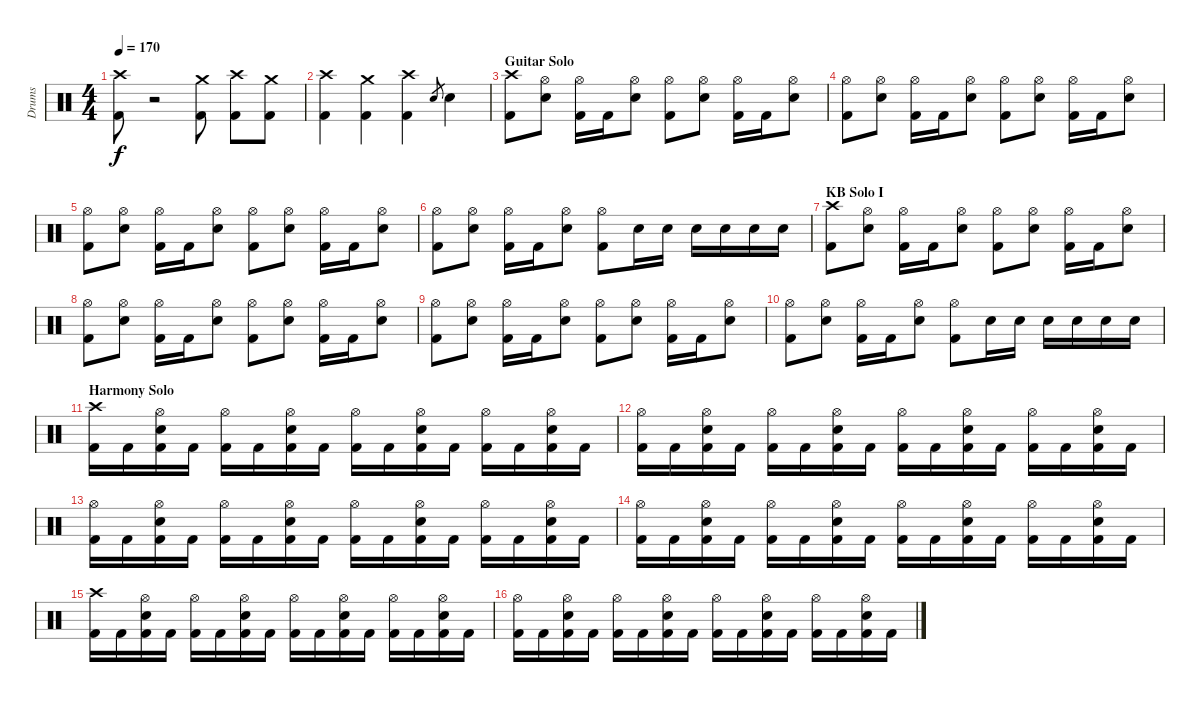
\track ("Drums" "Drums") {instrument percussion}
\staff {score}
\articulation defaults
\ts (4 4)
\tempo 170
\clef neutral
\ks c
("Crash high (hit)" "Kick (hit) 2").8{dy f} r.2 ("Crash medium (hit)" "Kick (hit) 2").8 ("Crash high (hit)" "Kick (hit) 2").8 ("Crash medium (hit)" "Kick (hit) 2").8 |
("Crash high (hit)" "Kick (hit) 2").4 ("Crash medium (hit)" "Kick (hit) 2").4 ("Crash high (hit)" "Kick (hit) 2").4 "Electric Snare (hit)".8{gr} "Electric Snare (hit)".4 |
\section ("" "Guitar Solo")
("Crash high (hit)" "Kick (hit) 2").8 ("Hi-Hat (open)" "Electric Snare (hit)").8 ("Hi-Hat (open)" "Kick (hit) 2").16 "Kick (hit) 2".16 ("Hi-Hat (open)" "Electric Snare (hit)").8 ("Hi-Hat (open)" "Kick (hit) 2").8 ("Hi-Hat (open)" "Electric Snare (hit)").8 ("Hi-Hat (open)" "Kick (hit) 2").16 "Kick (hit) 2".16 ("Hi-Hat (open)" "Electric Snare (hit)").8 |
("Hi-Hat (open)" "Kick (hit) 2").8 ("Hi-Hat (open)" "Electric Snare (hit)").8 ("Hi-Hat (open)" "Kick (hit) 2").16 "Kick (hit) 2".16 ("Hi-Hat (open)" "Electric Snare (hit)").8 ("Hi-Hat (open)" "Kick (hit) 2").8 ("Hi-Hat (open)" "Electric Snare (hit)").8 ("Hi-Hat (open)" "Kick (hit) 2").16 "Kick (hit) 2".16 ("Hi-Hat (open)" "Electric Snare (hit)").8 |
("Hi-Hat (open)" "Kick (hit) 2").8 ("Hi-Hat (open)" "Electric Snare (hit)").8 ("Hi-Hat (open)" "Kick (hit) 2").16 "Kick (hit) 2".16 ("Hi-Hat (open)" "Electric Snare (hit)").8 ("Hi-Hat (open)" "Kick (hit) 2").8 ("Hi-Hat (open)" "Electric Snare (hit)").8 ("Hi-Hat (open)" "Kick (hit) 2").16 "Kick (hit) 2".16 ("Hi-Hat (open)" "Electric Snare (hit)").8 |
("Hi-Hat (open)" "Kick (hit) 2").8 ("Hi-Hat (open)" "Electric Snare (hit)").8 ("Hi-Hat (open)" "Kick (hit) 2").16 "Kick (hit) 2".16 ("Hi-Hat (open)" "Electric Snare (hit)").8 ("Hi-Hat (open)" "Kick (hit) 2").8 "Electric Snare (hit)".16 "Electric Snare (hit)".16 "Electric Snare (hit)".16 "Electric Snare (hit)".16 "Electric Snare (hit)".16 "Electric Snare (hit)".16 |
\section ("" "KB Solo I")
("Crash high (hit)" "Kick (hit) 2").8 ("Hi-Hat (open)" "Electric Snare (hit)").8 ("Hi-Hat (open)" "Kick (hit) 2").16 "Kick (hit) 2".16 ("Hi-Hat (open)" "Electric Snare (hit)").8 ("Hi-Hat (open)" "Kick (hit) 2").8 ("Hi-Hat (open)" "Electric Snare (hit)").8 ("Hi-Hat (open)" "Kick (hit) 2").16 "Kick (hit) 2".16 ("Hi-Hat (open)" "Electric Snare (hit)").8 |
("Hi-Hat (open)" "Kick (hit) 2").8 ("Hi-Hat (open)" "Electric Snare (hit)").8 ("Hi-Hat (open)" "Kick (hit) 2").16 "Kick (hit) 2".16 ("Hi-Hat (open)" "Electric Snare (hit)").8 ("Hi-Hat (open)" "Kick (hit) 2").8 ("Hi-Hat (open)" "Electric Snare (hit)").8 ("Hi-Hat (open)" "Kick (hit) 2").16 "Kick (hit) 2".16 ("Hi-Hat (open)" "Electric Snare (hit)").8 |
("Hi-Hat (open)" "Kick (hit) 2").8 ("Hi-Hat (open)" "Electric Snare (hit)").8 ("Hi-Hat (open)" "Kick (hit) 2").16 "Kick (hit) 2".16 ("Hi-Hat (open)" "Electric Snare (hit)").8 ("Hi-Hat (open)" "Kick (hit) 2").8 ("Hi-Hat (open)" "Electric Snare (hit)").8 ("Hi-Hat (open)" "Kick (hit) 2").16 "Kick (hit) 2".16 ("Hi-Hat (open)" "Electric Snare (hit)").8 |
("Hi-Hat (open)" "Kick (hit) 2").8 ("Hi-Hat (open)" "Electric Snare (hit)").8 ("Hi-Hat (open)" "Kick (hit) 2").16 "Kick (hit) 2".16 ("Hi-Hat (open)" "Electric Snare (hit)").8 ("Hi-Hat (open)" "Kick (hit) 2").8 "Electric Snare (hit)".16 "Electric Snare (hit)".16 "Electric Snare (hit)".16 "Electric Snare (hit)".16 "Electric Snare (hit)".16 "Electric Snare (hit)".16 |
\section ("" "Harmony Solo")
("Crash high (hit)" "Kick (hit) 2").16 "Kick (hit) 2".16 ("Hi-Hat (open)" "Electric Snare (hit)" "Kick (hit) 2").16 "Kick (hit) 2".16 ("Hi-Hat (open)" "Kick (hit) 2").16 "Kick (hit) 2".16 ("Hi-Hat (open)" "Electric Snare (hit)" "Kick (hit) 2").16 "Kick (hit) 2".16 ("Hi-Hat (open)" "Kick (hit) 2").16 "Kick (hit) 2".16 ("Hi-Hat (open)" "Electric Snare (hit)" "Kick (hit) 2").16 "Kick (hit) 2".16 ("Hi-Hat (open)" "Kick (hit) 2").16 "Kick (hit) 2".16 ("Hi-Hat (open)" "Electric Snare (hit)" "Kick (hit) 2").16 "Kick (hit) 2".16 |
("Hi-Hat (open)" "Kick (hit) 2").16 "Kick (hit) 2".16 ("Hi-Hat (open)" "Electric Snare (hit)" "Kick (hit) 2").16 "Kick (hit) 2".16 ("Hi-Hat (open)" "Kick (hit) 2").16 "Kick (hit) 2".16 ("Hi-Hat (open)" "Electric Snare (hit)" "Kick (hit) 2").16 "Kick (hit) 2".16 ("Hi-Hat (open)" "Kick (hit) 2").16 "Kick (hit) 2".16 ("Hi-Hat (open)" "Electric Snare (hit)" "Kick (hit) 2").16 "Kick (hit) 2".16 ("Hi-Hat (open)" "Kick (hit) 2").16 "Kick (hit) 2".16 ("Hi-Hat (open)" "Electric Snare (hit)" "Kick (hit) 2").16 "Kick (hit) 2".16 |
("Hi-Hat (open)" "Kick (hit) 2").16 "Kick (hit) 2".16 ("Hi-Hat (open)" "Electric Snare (hit)" "Kick (hit) 2").16 "Kick (hit) 2".16 ("Hi-Hat (open)" "Kick (hit) 2").16 "Kick (hit) 2".16 ("Hi-Hat (open)" "Electric Snare (hit)" "Kick (hit) 2").16 "Kick (hit) 2".16 ("Hi-Hat (open)" "Kick (hit) 2").16 "Kick (hit) 2".16 ("Hi-Hat (open)" "Electric Snare (hit)" "Kick (hit) 2").16 "Kick (hit) 2".16 ("Hi-Hat (open)" "Kick (hit) 2").16 "Kick (hit) 2".16 ("Hi-Hat (open)" "Electric Snare (hit)" "Kick (hit) 2").16 "Kick (hit) 2".16 |
("Hi-Hat (open)" "Kick (hit) 2").16 "Kick (hit) 2".16 ("Hi-Hat (open)" "Electric Snare (hit)" "Kick (hit) 2").16 "Kick (hit) 2".16 ("Hi-Hat (open)" "Kick (hit) 2").16 "Kick (hit) 2".16 ("Hi-Hat (open)" "Electric Snare (hit)" "Kick (hit) 2").16 "Kick (hit) 2".16 ("Hi-Hat (open)" "Kick (hit) 2").16 "Kick (hit) 2".16 ("Hi-Hat (open)" "Electric Snare (hit)" "Kick (hit) 2").16 "Kick (hit) 2".16 ("Hi-Hat (open)" "Kick (hit) 2").16 "Kick (hit) 2".16 ("Hi-Hat (open)" "Electric Snare (hit)" "Kick (hit) 2").16 "Kick (hit) 2".16 |
("Crash high (hit)" "Kick (hit) 2").16 "Kick (hit) 2".16 ("Hi-Hat (open)" "Electric Snare (hit)" "Kick (hit) 2").16 "Kick (hit) 2".16 ("Hi-Hat (open)" "Kick (hit) 2").16 "Kick (hit) 2".16 ("Hi-Hat (open)" "Electric Snare (hit)" "Kick (hit) 2").16 "Kick (hit) 2".16 ("Hi-Hat (open)" "Kick (hit) 2").16 "Kick (hit) 2".16 ("Hi-Hat (open)" "Electric Snare (hit)" "Kick (hit) 2").16 "Kick (hit) 2".16 ("Hi-Hat (open)" "Kick (hit) 2").16 "Kick (hit) 2".16 ("Hi-Hat (open)" "Electric Snare (hit)" "Kick (hit) 2").16 "Kick (hit) 2".16 |
("Hi-Hat (open)" "Kick (hit) 2").16 "Kick (hit) 2".16 ("Hi-Hat (open)" "Electric Snare (hit)" "Kick (hit) 2").16 "Kick (hit) 2".16 ("Hi-Hat (open)" "Kick (hit) 2").16 "Kick (hit) 2".16 ("Hi-Hat (open)" "Electric Snare (hit)" "Kick (hit) 2").16 "Kick (hit) 2".16 ("Hi-Hat (open)" "Kick (hit) 2").16 "Kick (hit) 2".16 ("Hi-Hat (open)" "Electric Snare (hit)" "Kick (hit) 2").16 "Kick (hit) 2".16 ("Hi-Hat (open)" "Kick (hit) 2").16 "Kick (hit) 2".16 ("Hi-Hat (open)" "Electric Snare (hit)" "Kick (hit) 2").16 "Kick (hit) 2".16
